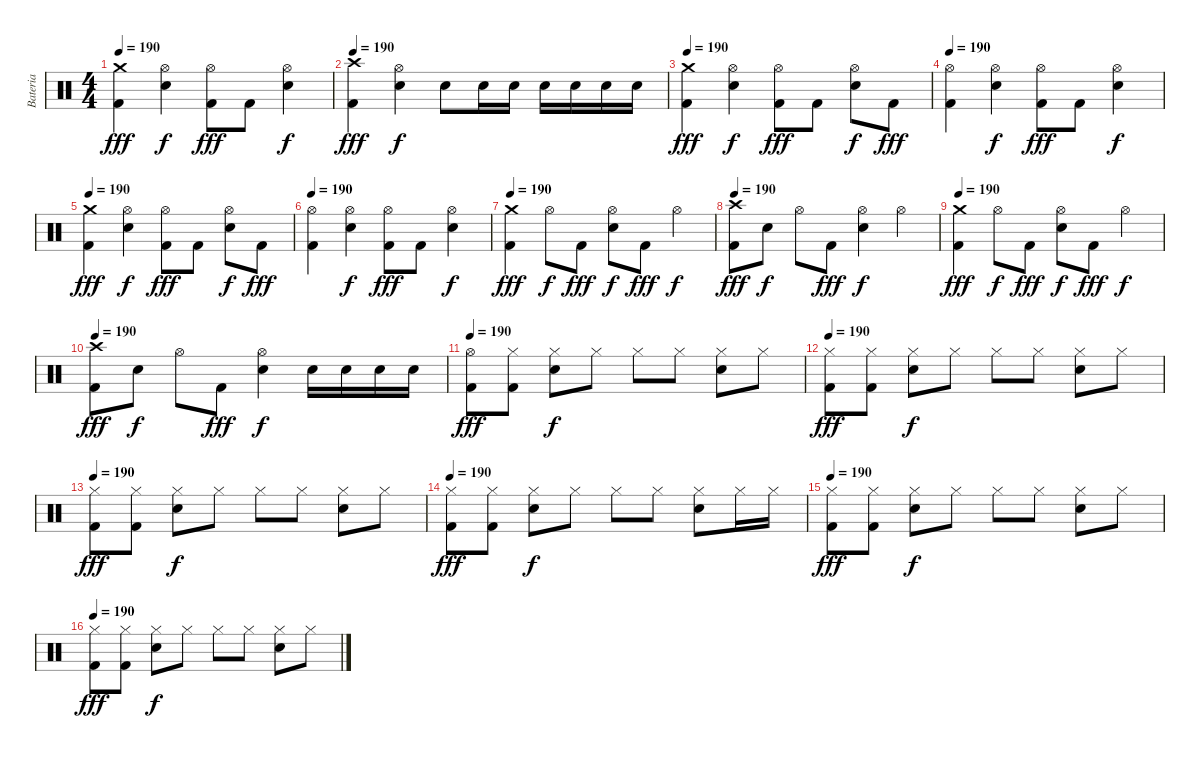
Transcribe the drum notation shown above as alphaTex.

\track ("Bateria" "Bateria") {instrument percussion}
\staff {score}
\articulation defaults
\ts (4 4)
\tempo 190
\clef neutral
\ks c
("Crash medium (hit)" "Kick (hit) 2").4{dy fff} ("Hi-Hat (open)" "Electric Snare (hit)").4{dy f} ("Hi-Hat (open)" "Kick (hit) 2").8{dy fff} "Kick (hit) 2".8 ("Hi-Hat (open)" "Electric Snare (hit)").4{dy f} |
\tempo 190
("Crash high (hit)" "Kick (hit) 2").4{dy fff} ("Hi-Hat (open)" "Electric Snare (hit)").4{dy f} "Electric Snare (hit)".8 "Electric Snare (hit)".16 "Electric Snare (hit)".16 "Electric Snare (hit)".16 "Electric Snare (hit)".16 "Electric Snare (hit)".16 "Electric Snare (hit)".16 |
\tempo 190
("Crash medium (hit)" "Kick (hit) 2").4{dy fff} ("Hi-Hat (open)" "Electric Snare (hit)").4{dy f} ("Hi-Hat (open)" "Kick (hit) 2").8{dy fff} "Kick (hit) 2".8 ("Hi-Hat (open)" "Electric Snare (hit)").8{dy f} "Kick (hit) 2".8{dy fff} |
\tempo 190
("Hi-Hat (open)" "Kick (hit) 2").4 ("Hi-Hat (open)" "Electric Snare (hit)").4{dy f} ("Hi-Hat (open)" "Kick (hit) 2").8{dy fff} "Kick (hit) 2".8 ("Hi-Hat (open)" "Electric Snare (hit)").4{dy f} |
\tempo 190
("Crash medium (hit)" "Kick (hit) 2").4{dy fff} ("Hi-Hat (open)" "Electric Snare (hit)").4{dy f} ("Hi-Hat (open)" "Kick (hit) 2").8{dy fff} "Kick (hit) 2".8 ("Hi-Hat (open)" "Electric Snare (hit)").8{dy f} "Kick (hit) 2".8{dy fff} |
\tempo 190
("Hi-Hat (open)" "Kick (hit) 2").4 ("Hi-Hat (open)" "Electric Snare (hit)").4{dy f} ("Hi-Hat (open)" "Kick (hit) 2").8{dy fff} "Kick (hit) 2".8 ("Hi-Hat (open)" "Electric Snare (hit)").4{dy f} |
\tempo 190
("Crash medium (hit)" "Kick (hit) 2").4{dy fff} "Hi-Hat (open)".8{dy f} "Kick (hit) 2".8{dy fff} ("Hi-Hat (open)" "Electric Snare (hit)").8{dy f} "Kick (hit) 2".8{dy fff} "Hi-Hat (open)".4{dy f} |
\tempo 190
("Crash high (hit)" "Kick (hit) 2").8{dy fff} "Electric Snare (hit)".8{dy f} "Hi-Hat (open)".8 "Kick (hit) 2".8{dy fff} ("Hi-Hat (open)" "Electric Snare (hit)").4{dy f} "Hi-Hat (open)".4 |
\tempo 190
("Crash medium (hit)" "Kick (hit) 2").4{dy fff} "Hi-Hat (open)".8{dy f} "Kick (hit) 2".8{dy fff} ("Hi-Hat (open)" "Electric Snare (hit)").8{dy f} "Kick (hit) 2".8{dy fff} "Hi-Hat (open)".4{dy f} |
\tempo 190
("Crash high (hit)" "Kick (hit) 2").8{dy fff} "Electric Snare (hit)".8{dy f} "Hi-Hat (open)".8 "Kick (hit) 2".8{dy fff} ("Hi-Hat (open)" "Electric Snare (hit)").4{dy f} "Electric Snare (hit)".16 "Electric Snare (hit)".16 "Electric Snare (hit)".16 "Electric Snare (hit)".16 |
\tempo 190
("Hi-Hat (open)" "Kick (hit) 2").8{dy fff} ("Hi-Hat (closed)" "Kick (hit) 2").8 ("Hi-Hat (closed)" "Electric Snare (hit)").8{dy f} "Hi-Hat (closed)".8 "Hi-Hat (closed)".8 "Hi-Hat (closed)".8 ("Hi-Hat (closed)" "Electric Snare (hit)").8 "Hi-Hat (closed)".8 |
\tempo 190
("Hi-Hat (closed)" "Kick (hit) 2").8{dy fff} ("Hi-Hat (closed)" "Kick (hit) 2").8 ("Hi-Hat (closed)" "Electric Snare (hit)").8{dy f} "Hi-Hat (closed)".8 "Hi-Hat (closed)".8 "Hi-Hat (closed)".8 ("Hi-Hat (closed)" "Electric Snare (hit)").8 "Hi-Hat (closed)".8 |
\tempo 190
("Hi-Hat (closed)" "Kick (hit) 2").8{dy fff} ("Hi-Hat (closed)" "Kick (hit) 2").8 ("Hi-Hat (closed)" "Electric Snare (hit)").8{dy f} "Hi-Hat (closed)".8 "Hi-Hat (closed)".8 "Hi-Hat (closed)".8 ("Hi-Hat (closed)" "Electric Snare (hit)").8 "Hi-Hat (closed)".8 |
\tempo 190
("Hi-Hat (closed)" "Kick (hit) 2").8{dy fff} ("Hi-Hat (closed)" "Kick (hit) 2").8 ("Hi-Hat (closed)" "Electric Snare (hit)").8{dy f} "Hi-Hat (closed)".8 "Hi-Hat (closed)".8 "Hi-Hat (closed)".8 ("Hi-Hat (closed)" "Electric Snare (hit)").8 "Hi-Hat (closed)".16 "Hi-Hat (closed)".16 |
\tempo 190
("Hi-Hat (closed)" "Kick (hit) 2").8{dy fff} ("Hi-Hat (closed)" "Kick (hit) 2").8 ("Hi-Hat (closed)" "Electric Snare (hit)").8{dy f} "Hi-Hat (closed)".8 "Hi-Hat (closed)".8 "Hi-Hat (closed)".8 ("Hi-Hat (closed)" "Electric Snare (hit)").8 "Hi-Hat (closed)".8 |
\tempo 190
("Hi-Hat (closed)" "Kick (hit) 2").8{dy fff} ("Hi-Hat (closed)" "Kick (hit) 2").8 ("Hi-Hat (closed)" "Electric Snare (hit)").8{dy f} "Hi-Hat (closed)".8 "Hi-Hat (closed)".8 "Hi-Hat (closed)".8 ("Hi-Hat (closed)" "Electric Snare (hit)").8 "Hi-Hat (closed)".8
